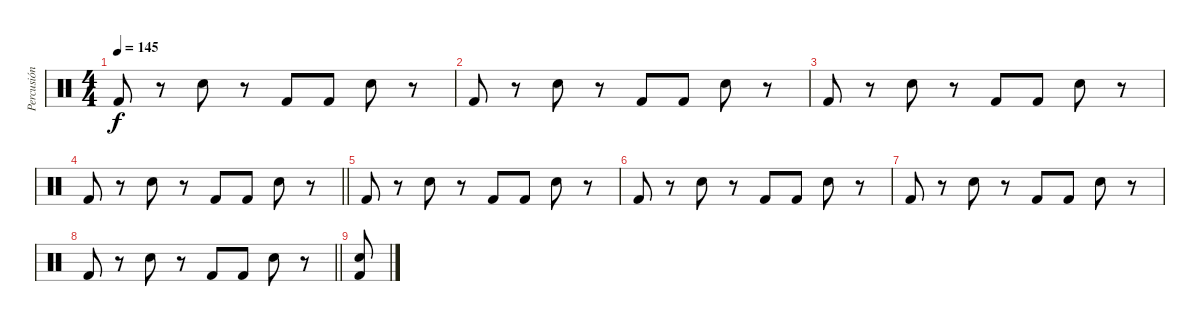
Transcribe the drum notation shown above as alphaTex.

\track ("Percusión" "Percusión") {instrument percussion}
\staff {score}
\articulation defaults
\ts (4 4)
\tempo 145
\clef neutral
\ks c "Kick (hit) 2".8{dy f}
r.8 "Snare (hit) 2".8 r.8 "Kick (hit) 2".8 "Kick (hit) 2".8 "Snare (hit) 2".8 r.8 |
"Kick (hit) 2".8 r.8 "Snare (hit) 2".8 r.8 "Kick (hit) 2".8 "Kick (hit) 2".8 "Snare (hit) 2".8 r.8 |
"Kick (hit) 2".8 r.8 "Snare (hit) 2".8 r.8 "Kick (hit) 2".8 "Kick (hit) 2".8 "Snare (hit) 2".8 r.8 |
\barLineRight lightlight "Kick (hit) 2".8
r.8 "Snare (hit) 2".8 r.8 "Kick (hit) 2".8 "Kick (hit) 2".8 "Snare (hit) 2".8 r.8 |
"Kick (hit) 2".8 r.8 "Snare (hit) 2".8 r.8 "Kick (hit) 2".8 "Kick (hit) 2".8 "Snare (hit) 2".8 r.8 |
"Kick (hit) 2".8 r.8 "Snare (hit) 2".8 r.8 "Kick (hit) 2".8 "Kick (hit) 2".8 "Snare (hit) 2".8 r.8 |
"Kick (hit) 2".8 r.8 "Snare (hit) 2".8 r.8 "Kick (hit) 2".8 "Kick (hit) 2".8 "Snare (hit) 2".8 r.8 |
\barLineRight lightlight "Kick (hit) 2".8
r.8 "Snare (hit) 2".8 r.8 "Kick (hit) 2".8 "Kick (hit) 2".8 "Snare (hit) 2".8 r.8 |
("Snare (hit) 2" "Kick (hit) 2").8
